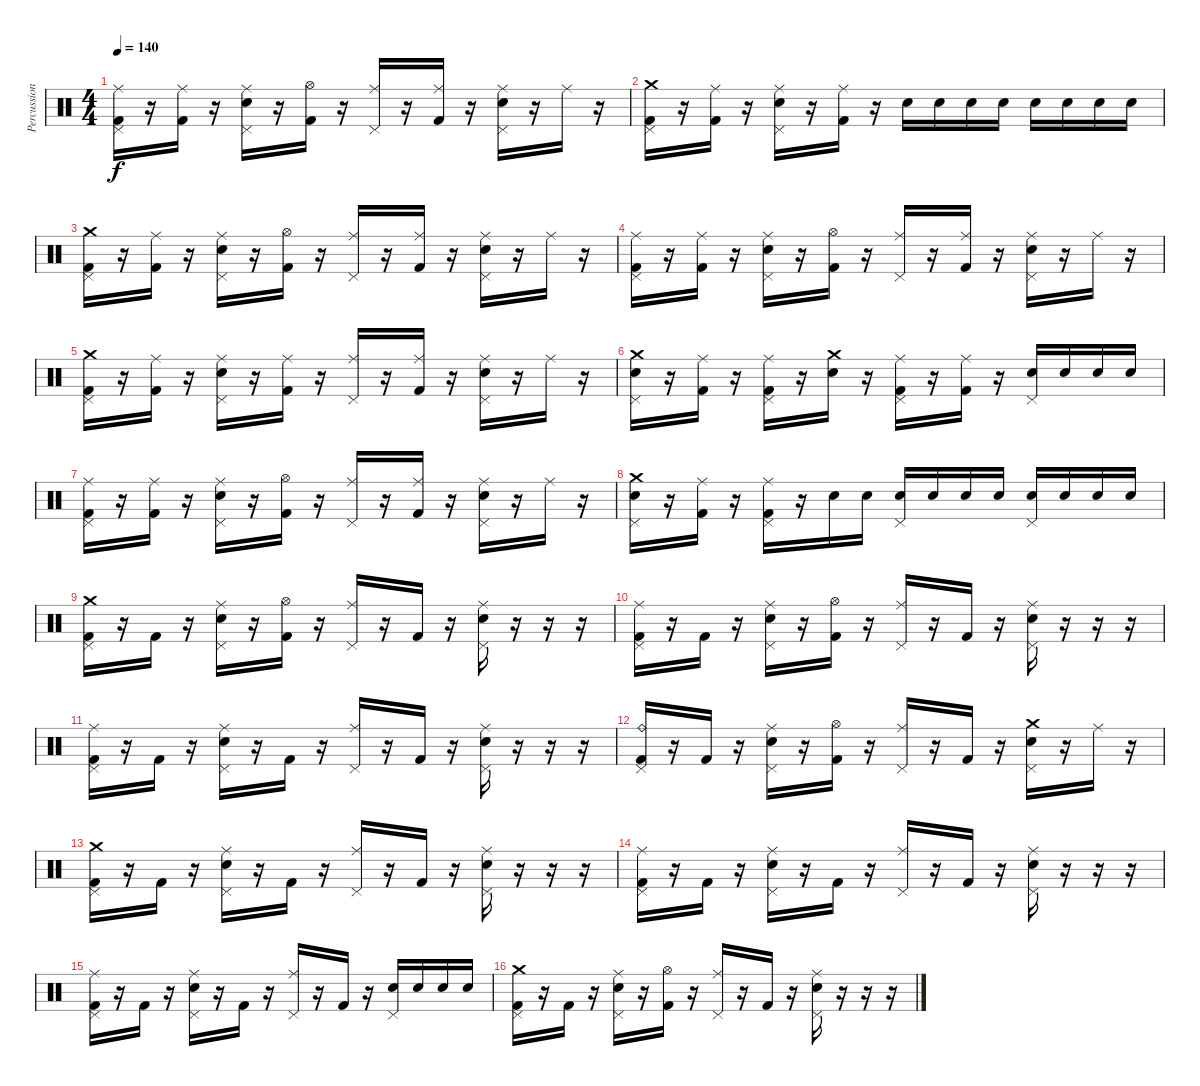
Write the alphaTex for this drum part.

\track ("Percussion" "Percussion") {instrument percussion}
\staff {score}
\articulation defaults
\ts (4 4)
\tempo 140
\clef neutral
\ks c
("Ride (middle)" "Pedal Hi-Hat (hit)" "Kick (hit) 2").16{dy f} r.16 ("Ride (middle)" "Kick (hit) 2").16 r.16 ("Ride (middle)" "Pedal Hi-Hat (hit)" "Snare (hit) 2").16 r.16 ("Hi-Hat (open)" "Kick (hit) 2").16 r.16 ("Ride (middle)" "Pedal Hi-Hat (hit)").16 r.16 ("Ride (middle)" "Kick (hit) 2").16 r.16 ("Ride (middle)" "Pedal Hi-Hat (hit)" "Snare (hit) 2").16 r.16 "Ride (middle)".16 r.16 |
("Crash medium (hit)" "Pedal Hi-Hat (hit)" "Kick (hit) 2").16 r.16 ("Ride (middle)" "Kick (hit) 2").16 r.16 ("Ride (middle)" "Pedal Hi-Hat (hit)" "Snare (hit) 2").16 r.16 ("Ride (middle)" "Kick (hit) 2").16 r.16 "Snare (hit) 2".16 "Snare (hit) 2".16 "Snare (hit) 2".16 "Snare (hit) 2".16 "Snare (hit) 2".16 "Snare (hit) 2".16 "Snare (hit) 2".16 "Snare (hit) 2".16 |
("Crash medium (hit)" "Pedal Hi-Hat (hit)" "Kick (hit) 2").16 r.16 ("Ride (middle)" "Kick (hit) 2").16 r.16 ("Ride (middle)" "Pedal Hi-Hat (hit)" "Snare (hit) 2").16 r.16 ("Hi-Hat (open)" "Kick (hit) 2").16 r.16 ("Ride (middle)" "Pedal Hi-Hat (hit)").16 r.16 ("Ride (middle)" "Kick (hit) 2").16 r.16 ("Ride (middle)" "Pedal Hi-Hat (hit)" "Snare (hit) 2").16 r.16 "Ride (middle)".16 r.16 |
("Ride (middle)" "Pedal Hi-Hat (hit)" "Kick (hit) 2").16 r.16 ("Ride (middle)" "Kick (hit) 2").16 r.16 ("Ride (middle)" "Pedal Hi-Hat (hit)" "Snare (hit) 2").16 r.16 ("Hi-Hat (open)" "Kick (hit) 2").16 r.16 ("Ride (middle)" "Pedal Hi-Hat (hit)").16 r.16 ("Ride (middle)" "Kick (hit) 2").16 r.16 ("Ride (middle)" "Pedal Hi-Hat (hit)" "Snare (hit) 2").16 r.16 "Ride (middle)".16 r.16 |
("Crash medium (hit)" "Pedal Hi-Hat (hit)" "Kick (hit) 2").16 r.16 ("Ride (middle)" "Kick (hit) 2").16 r.16 ("Ride (middle)" "Pedal Hi-Hat (hit)" "Snare (hit) 2").16 r.16 ("Ride (middle)" "Kick (hit) 2").16 r.16 ("Ride (middle)" "Pedal Hi-Hat (hit)").16 r.16 ("Ride (middle)" "Kick (hit) 2").16 r.16 ("Ride (middle)" "Pedal Hi-Hat (hit)" "Snare (hit) 2").16 r.16 "Ride (middle)".16 r.16 |
("Crash medium (hit)" "Pedal Hi-Hat (hit)" "Snare (hit) 2").16 r.16 ("Ride (middle)" "Kick (hit) 2").16 r.16 ("Ride (middle)" "Pedal Hi-Hat (hit)" "Kick (hit) 2").16 r.16 ("Crash medium (hit)" "Snare (hit) 2").16 r.16 ("Ride (middle)" "Pedal Hi-Hat (hit)" "Kick (hit) 2").16 r.16 ("Ride (middle)" "Kick (hit) 2").16 r.16 ("Pedal Hi-Hat (hit)" "Snare (hit) 2").16 "Snare (hit) 2".16 "Snare (hit) 2".16 "Snare (hit) 2".16 |
("Ride (middle)" "Pedal Hi-Hat (hit)" "Kick (hit) 2").16 r.16 ("Ride (middle)" "Kick (hit) 2").16 r.16 ("Ride (middle)" "Pedal Hi-Hat (hit)" "Snare (hit) 2").16 r.16 ("Hi-Hat (open)" "Kick (hit) 2").16 r.16 ("Ride (middle)" "Pedal Hi-Hat (hit)").16 r.16 ("Ride (middle)" "Kick (hit) 2").16 r.16 ("Ride (middle)" "Pedal Hi-Hat (hit)" "Snare (hit) 2").16 r.16 "Ride (middle)".16 r.16 |
("Crash medium (hit)" "Pedal Hi-Hat (hit)" "Snare (hit) 2").16 r.16 ("Ride (middle)" "Kick (hit) 2").16 r.16 ("Ride (middle)" "Pedal Hi-Hat (hit)" "Kick (hit) 2").16 r.16 "Snare (hit) 2".16 "Snare (hit) 2".16 ("Pedal Hi-Hat (hit)" "Snare (hit) 2").16 "Snare (hit) 2".16 "Snare (hit) 2".16 "Snare (hit) 2".16 ("Pedal Hi-Hat (hit)" "Snare (hit) 2").16 "Snare (hit) 2".16 "Snare (hit) 2".16 "Snare (hit) 2".16 |
("Crash medium (hit)" "Pedal Hi-Hat (hit)" "Kick (hit) 2").16 r.16 "Kick (hit) 2".16 r.16 ("Ride (middle)" "Pedal Hi-Hat (hit)" "Snare (hit) 2").16 r.16 ("Hi-Hat (open)" "Kick (hit) 2").16 r.16 ("Ride (middle)" "Pedal Hi-Hat (hit)").16 r.16 "Kick (hit) 2".16 r.16 ("Ride (middle)" "Pedal Hi-Hat (hit)" "Snare (hit) 2").16 r.16 r.16 r.16 |
("Ride (middle)" "Pedal Hi-Hat (hit)" "Kick (hit) 2").16 r.16 "Kick (hit) 2".16 r.16 ("Ride (middle)" "Pedal Hi-Hat (hit)" "Snare (hit) 2").16 r.16 ("Hi-Hat (open)" "Kick (hit) 2").16 r.16 ("Ride (middle)" "Pedal Hi-Hat (hit)").16 r.16 "Kick (hit) 2".16 r.16 ("Ride (middle)" "Pedal Hi-Hat (hit)" "Snare (hit) 2").16 r.16 r.16 r.16 |
("Ride (middle)" "Pedal Hi-Hat (hit)" "Kick (hit) 2").16 r.16 "Kick (hit) 2".16 r.16 ("Ride (middle)" "Pedal Hi-Hat (hit)" "Snare (hit) 2").16 r.16 "Kick (hit) 2".16 r.16 ("Ride (middle)" "Pedal Hi-Hat (hit)").16 r.16 "Kick (hit) 2".16 r.16 ("Ride (middle)" "Pedal Hi-Hat (hit)" "Snare (hit) 2").16 r.16 r.16 r.16 |
("Ride (bell)" "Pedal Hi-Hat (hit)" "Kick (hit) 2").16 r.16 "Kick (hit) 2".16 r.16 ("Ride (middle)" "Pedal Hi-Hat (hit)" "Snare (hit) 2").16 r.16 ("Hi-Hat (open)" "Kick (hit) 2").16 r.16 ("Ride (middle)" "Pedal Hi-Hat (hit)").16 r.16 "Kick (hit) 2".16 r.16 ("Crash medium (hit)" "Pedal Hi-Hat (hit)" "Snare (hit) 2").16 r.16 "Ride (middle)".16 r.16 |
("Crash medium (hit)" "Pedal Hi-Hat (hit)" "Kick (hit) 2").16 r.16 "Kick (hit) 2".16 r.16 ("Ride (middle)" "Pedal Hi-Hat (hit)" "Snare (hit) 2").16 r.16 "Kick (hit) 2".16 r.16 ("Ride (middle)" "Pedal Hi-Hat (hit)").16 r.16 "Kick (hit) 2".16 r.16 ("Ride (middle)" "Pedal Hi-Hat (hit)" "Snare (hit) 2").16 r.16 r.16 r.16 |
("Ride (middle)" "Pedal Hi-Hat (hit)" "Kick (hit) 2").16 r.16 "Kick (hit) 2".16 r.16 ("Ride (middle)" "Pedal Hi-Hat (hit)" "Snare (hit) 2").16 r.16 "Kick (hit) 2".16 r.16 ("Ride (middle)" "Pedal Hi-Hat (hit)").16 r.16 "Kick (hit) 2".16 r.16 ("Ride (middle)" "Pedal Hi-Hat (hit)" "Snare (hit) 2").16 r.16 r.16 r.16 |
("Ride (middle)" "Pedal Hi-Hat (hit)" "Kick (hit) 2").16 r.16 "Kick (hit) 2".16 r.16 ("Ride (middle)" "Pedal Hi-Hat (hit)" "Snare (hit) 2").16 r.16 "Kick (hit) 2".16 r.16 ("Ride (middle)" "Pedal Hi-Hat (hit)").16 r.16 "Kick (hit) 2".16 r.16 ("Pedal Hi-Hat (hit)" "Snare (hit) 2").16 "Snare (hit) 2".16 "Snare (hit) 2".16 "Snare (hit) 2".16 |
("Crash medium (hit)" "Pedal Hi-Hat (hit)" "Kick (hit) 2").16 r.16 "Kick (hit) 2".16 r.16 ("Ride (middle)" "Pedal Hi-Hat (hit)" "Snare (hit) 2").16 r.16 ("Hi-Hat (open)" "Kick (hit) 2").16 r.16 ("Ride (middle)" "Pedal Hi-Hat (hit)").16 r.16 "Kick (hit) 2".16 r.16 ("Ride (middle)" "Pedal Hi-Hat (hit)" "Snare (hit) 2").16 r.16 r.16 r.16
